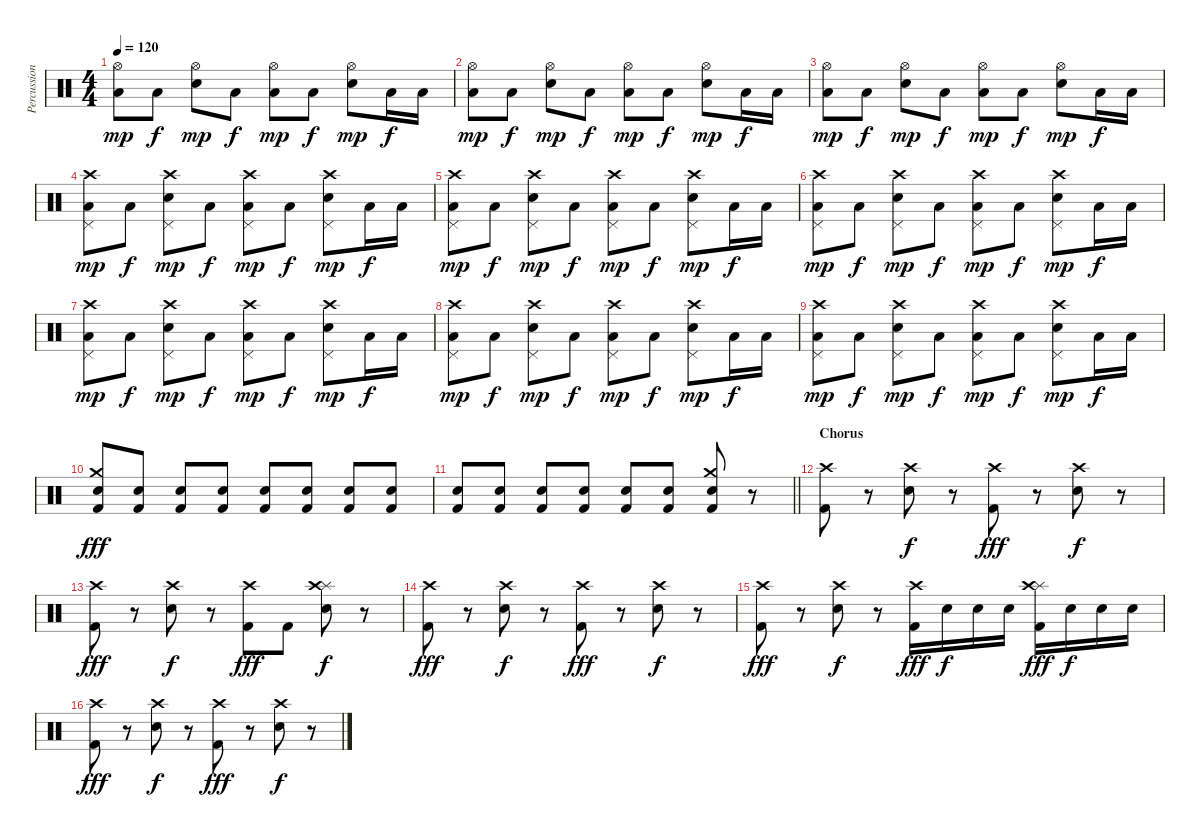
\track ("Percussion" "Percussion") {instrument percussion}
\staff {score}
\articulation defaults
\ts (4 4)
\tempo 120
\clef neutral
\ks c
("Hi-Hat (open)" "Low Floor Tom (hit)").8{dy mp} "Low Floor Tom (hit)".8{dy f} ("Electric Snare (hit)" "Hi-Hat (open)").8{dy mp} "Low Floor Tom (hit)".8{dy f} ("Hi-Hat (open)" "Low Floor Tom (hit)").8{dy mp} "Low Floor Tom (hit)".8{dy f} ("Electric Snare (hit)" "Hi-Hat (open)").8{dy mp} "Low Floor Tom (hit)".16{dy f} "Low Floor Tom (hit)".16 |
("Hi-Hat (open)" "Low Floor Tom (hit)").8{dy mp} "Low Floor Tom (hit)".8{dy f} ("Electric Snare (hit)" "Hi-Hat (open)").8{dy mp} "Low Floor Tom (hit)".8{dy f} ("Hi-Hat (open)" "Low Floor Tom (hit)").8{dy mp} "Low Floor Tom (hit)".8{dy f} ("Electric Snare (hit)" "Hi-Hat (open)").8{dy mp} "Low Floor Tom (hit)".16{dy f} "Low Floor Tom (hit)".16 |
("Hi-Hat (open)" "Low Floor Tom (hit)").8{dy mp} "Low Floor Tom (hit)".8{dy f} ("Electric Snare (hit)" "Hi-Hat (open)").8{dy mp} "Low Floor Tom (hit)".8{dy f} ("Hi-Hat (open)" "Low Floor Tom (hit)").8{dy mp} "Low Floor Tom (hit)".8{dy f} ("Electric Snare (hit)" "Hi-Hat (open)").8{dy mp} "Low Floor Tom (hit)".16{dy f} "Low Floor Tom (hit)".16 |
("Pedal Hi-Hat (hit)" "Crash high (hit)" "Low Floor Tom (hit)").8{dy mp} "Low Floor Tom (hit)".8{dy f} ("Pedal Hi-Hat (hit)" "Electric Snare (hit)" "Crash high (hit)").8{dy mp} "Low Floor Tom (hit)".8{dy f} ("Pedal Hi-Hat (hit)" "Crash high (hit)" "Low Floor Tom (hit)").8{dy mp} "Low Floor Tom (hit)".8{dy f} ("Pedal Hi-Hat (hit)" "Electric Snare (hit)" "Crash high (hit)").8{dy mp} "Low Floor Tom (hit)".16{dy f} "Low Floor Tom (hit)".16 |
("Pedal Hi-Hat (hit)" "Crash high (hit)" "Low Floor Tom (hit)").8{dy mp} "Low Floor Tom (hit)".8{dy f} ("Pedal Hi-Hat (hit)" "Electric Snare (hit)" "Crash high (hit)").8{dy mp} "Low Floor Tom (hit)".8{dy f} ("Pedal Hi-Hat (hit)" "Crash high (hit)" "Low Floor Tom (hit)").8{dy mp} "Low Floor Tom (hit)".8{dy f} ("Pedal Hi-Hat (hit)" "Electric Snare (hit)" "Crash high (hit)").8{dy mp} "Low Floor Tom (hit)".16{dy f} "Low Floor Tom (hit)".16 |
("Pedal Hi-Hat (hit)" "Crash high (hit)" "Low Floor Tom (hit)").8{dy mp} "Low Floor Tom (hit)".8{dy f} ("Pedal Hi-Hat (hit)" "Electric Snare (hit)" "Crash high (hit)").8{dy mp} "Low Floor Tom (hit)".8{dy f} ("Pedal Hi-Hat (hit)" "Crash high (hit)" "Low Floor Tom (hit)").8{dy mp} "Low Floor Tom (hit)".8{dy f} ("Pedal Hi-Hat (hit)" "Electric Snare (hit)" "Crash high (hit)").8{dy mp} "Low Floor Tom (hit)".16{dy f} "Low Floor Tom (hit)".16 |
("Pedal Hi-Hat (hit)" "Crash high (hit)" "Low Floor Tom (hit)").8{dy mp} "Low Floor Tom (hit)".8{dy f} ("Pedal Hi-Hat (hit)" "Electric Snare (hit)" "Crash high (hit)").8{dy mp} "Low Floor Tom (hit)".8{dy f} ("Pedal Hi-Hat (hit)" "Crash high (hit)" "Low Floor Tom (hit)").8{dy mp} "Low Floor Tom (hit)".8{dy f} ("Pedal Hi-Hat (hit)" "Electric Snare (hit)" "Crash high (hit)").8{dy mp} "Low Floor Tom (hit)".16{dy f} "Low Floor Tom (hit)".16 |
("Pedal Hi-Hat (hit)" "Crash high (hit)" "Low Floor Tom (hit)").8{dy mp} "Low Floor Tom (hit)".8{dy f} ("Pedal Hi-Hat (hit)" "Electric Snare (hit)" "Crash high (hit)").8{dy mp} "Low Floor Tom (hit)".8{dy f} ("Pedal Hi-Hat (hit)" "Crash high (hit)" "Low Floor Tom (hit)").8{dy mp} "Low Floor Tom (hit)".8{dy f} ("Pedal Hi-Hat (hit)" "Electric Snare (hit)" "Crash high (hit)").8{dy mp} "Low Floor Tom (hit)".16{dy f} "Low Floor Tom (hit)".16 |
("Pedal Hi-Hat (hit)" "Crash high (hit)" "Low Floor Tom (hit)").8{dy mp} "Low Floor Tom (hit)".8{dy f} ("Pedal Hi-Hat (hit)" "Electric Snare (hit)" "Crash high (hit)").8{dy mp} "Low Floor Tom (hit)".8{dy f} ("Pedal Hi-Hat (hit)" "Crash high (hit)" "Low Floor Tom (hit)").8{dy mp} "Low Floor Tom (hit)".8{dy f} ("Pedal Hi-Hat (hit)" "Electric Snare (hit)" "Crash high (hit)").8{dy mp} "Low Floor Tom (hit)".16{dy f} "Low Floor Tom (hit)".16 |
("Crash medium (hit)" "Electric Snare (hit)" "Kick (hit) 2").8{dy fff} ("Electric Snare (hit)" "Kick (hit) 2").8 ("Electric Snare (hit)" "Kick (hit) 2").8 ("Electric Snare (hit)" "Kick (hit) 2").8 ("Electric Snare (hit)" "Kick (hit) 2").8 ("Electric Snare (hit)" "Kick (hit) 2").8 ("Electric Snare (hit)" "Kick (hit) 2").8 ("Electric Snare (hit)" "Kick (hit) 2").8 |
\barLineRight lightlight
("Electric Snare (hit)" "Kick (hit) 2").8 ("Electric Snare (hit)" "Kick (hit) 2").8 ("Electric Snare (hit)" "Kick (hit) 2").8 ("Electric Snare (hit)" "Kick (hit) 2").8 ("Electric Snare (hit)" "Kick (hit) 2").8 ("Electric Snare (hit)" "Kick (hit) 2").8 ("Crash medium (hit)" "Electric Snare (hit)" "Kick (hit) 2").8 r.8 |
\section ("" "Chorus")
("Crash high (hit)" "Kick (hit) 2").8 r.8 ("Electric Snare (hit)" "Crash high (hit)").8{dy f} r.8 ("Crash high (hit)" "Kick (hit) 2").8{dy fff} r.8 ("Electric Snare (hit)" "Crash high (hit)").8{dy f} r.8 |
("Crash high (hit)" "Kick (hit) 2").8{dy fff} r.8 ("Electric Snare (hit)" "Crash high (hit)").8{dy f} r.8 ("Crash high (hit)" "Kick (hit) 2").8{dy fff} "Kick (hit) 2".8 ("Splash (hit)" "Electric Snare (hit)" "Crash high (hit)").8{dy f} r.8 |
("Crash high (hit)" "Kick (hit) 2").8{dy fff} r.8 ("Electric Snare (hit)" "Crash high (hit)").8{dy f} r.8 ("Crash high (hit)" "Kick (hit) 2").8{dy fff} r.8 ("Electric Snare (hit)" "Crash high (hit)").8{dy f} r.8 |
("Crash high (hit)" "Kick (hit) 2").8{dy fff} r.8 ("Electric Snare (hit)" "Crash high (hit)").8{dy f} r.8 ("Crash high (hit)" "Kick (hit) 2").16{dy fff} "Snare (hit) 2".16{dy f} "Electric Snare (hit)".16 "Snare (hit) 2".16 ("Splash (hit)" "Crash high (hit)" "Kick (hit) 2").16{dy fff} "Snare (hit) 2".16{dy f} "Electric Snare (hit)".16 "Snare (hit) 2".16 |
("Crash high (hit)" "Kick (hit) 2").8{dy fff} r.8 ("Electric Snare (hit)" "Crash high (hit)").8{dy f} r.8 ("Crash high (hit)" "Kick (hit) 2").8{dy fff} r.8 ("Electric Snare (hit)" "Crash high (hit)").8{dy f} r.8
